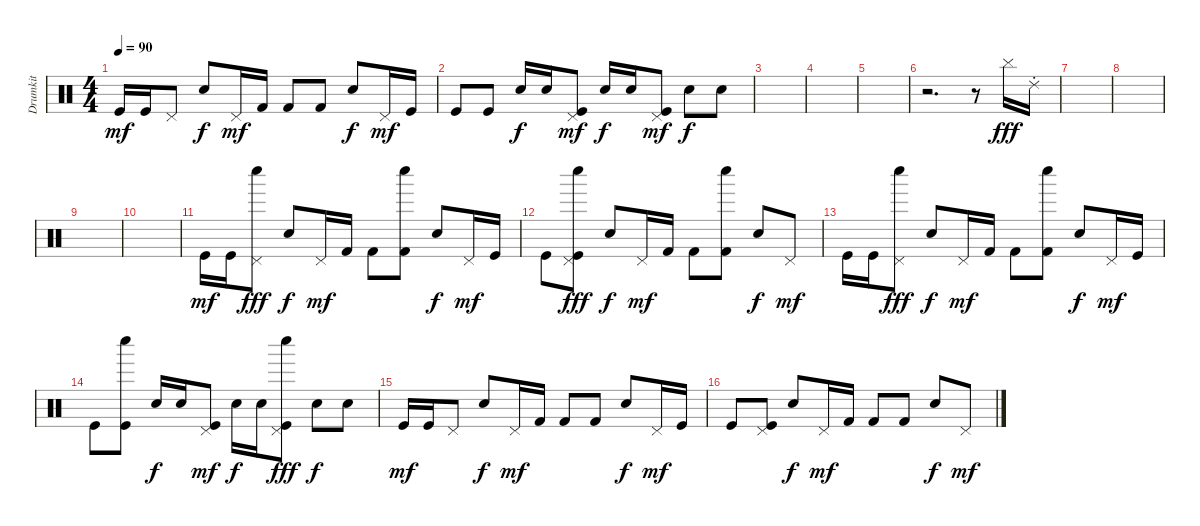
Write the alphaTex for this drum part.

\track ("Drumkit" "Drumkit") {instrument percussion}
\staff {score}
\articulation defaults
\ts (4 4)
\tempo 90
\clef neutral
\ks c "Kick (hit)".16{dy mf} "Kick (hit)".16 "Pedal Hi-Hat (hit)".8 "Snare (hit) 2".8{dy f} "Pedal Hi-Hat (hit)".16{dy mf} "Kick (hit) 2".16 "Kick (hit) 2".8 "Kick (hit) 2".8 "Snare (hit) 2".8{dy f} "Pedal Hi-Hat (hit)".16{dy mf} "Kick (hit)".16
|
"Kick (hit)".8 "Kick (hit)".8 "Snare (hit) 2".16{dy f} "Snare (hit) 2".16 ("Kick (hit)" "Pedal Hi-Hat (hit)").8{dy mf} "Snare (hit) 2".16{dy f} "Snare (hit) 2".16 ("Kick (hit)" "Pedal Hi-Hat (hit)").8{dy mf} "Snare (hit) 2".8{dy f} "Snare (hit) 2".8 |
|
|
|
r.2{d} r.8 "Cymbal (hit)".16{dy fff} "Ride (choke) 2".16 |
|
|
|
|
"Kick (hit)".16{dy mf} "Kick (hit)".16 ("Pedal Hi-Hat (hit)" "Whistle low (hit)").8{dy fff} "Snare (hit) 2".8{dy f} "Pedal Hi-Hat (hit)".16{dy mf} "Kick (hit) 2".16 "Kick (hit) 2".8 ("Whistle low (hit)" "Kick (hit) 2").8 "Snare (hit) 2".8{dy f} "Pedal Hi-Hat (hit)".16{dy mf} "Kick (hit)".16 |
"Kick (hit)".8 ("Pedal Hi-Hat (hit)" "Kick (hit)" "Whistle low (hit)").8{dy fff} "Snare (hit) 2".8{dy f} "Pedal Hi-Hat (hit)".16{dy mf} "Kick (hit) 2".16 "Kick (hit) 2".8 ("Whistle low (hit)" "Kick (hit) 2").8 "Snare (hit) 2".8{dy f} "Pedal Hi-Hat (hit)".8{dy mf} |
"Kick (hit)".16 "Kick (hit)".16 ("Whistle low (hit)" "Pedal Hi-Hat (hit)").8{dy fff} "Snare (hit) 2".8{dy f} "Pedal Hi-Hat (hit)".16{dy mf} "Kick (hit) 2".16 "Kick (hit) 2".8 ("Whistle low (hit)" "Kick (hit) 2").8 "Snare (hit) 2".8{dy f} "Pedal Hi-Hat (hit)".16{dy mf} "Kick (hit)".16 |
"Kick (hit)".8 ("Whistle low (hit)" "Kick (hit)").8 "Snare (hit) 2".16{dy f} "Snare (hit) 2".16 ("Kick (hit)" "Pedal Hi-Hat (hit)").8{dy mf} "Snare (hit) 2".16{dy f} "Snare (hit) 2".16 ("Kick (hit)" "Pedal Hi-Hat (hit)" "Whistle low (hit)").8{dy fff} "Snare (hit) 2".8{dy f} "Snare (hit) 2".8 |
"Kick (hit)".16{dy mf} "Kick (hit)".16 "Pedal Hi-Hat (hit)".8 "Snare (hit) 2".8{dy f} "Pedal Hi-Hat (hit)".16{dy mf} "Kick (hit) 2".16 "Kick (hit) 2".8 "Kick (hit) 2".8 "Snare (hit) 2".8{dy f} "Pedal Hi-Hat (hit)".16{dy mf} "Kick (hit)".16 |
"Kick (hit)".8 ("Pedal Hi-Hat (hit)" "Kick (hit)").8 "Snare (hit) 2".8{dy f} "Pedal Hi-Hat (hit)".16{dy mf} "Kick (hit) 2".16 "Kick (hit) 2".8 "Kick (hit) 2".8 "Snare (hit) 2".8{dy f} "Pedal Hi-Hat (hit)".8{dy mf}
